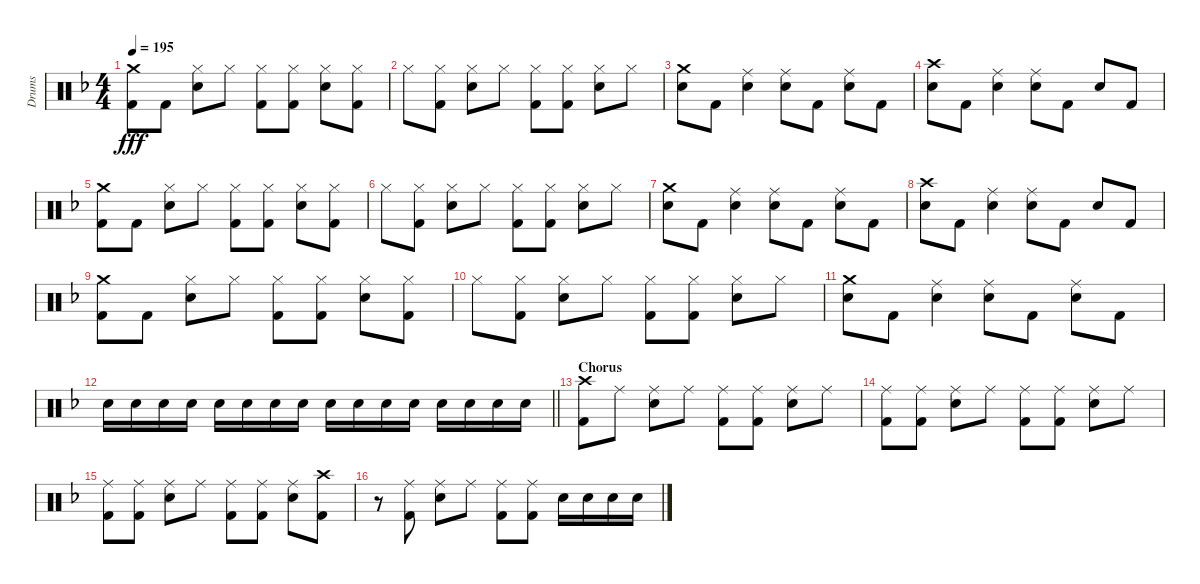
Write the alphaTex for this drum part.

\track ("Drums" "Drums") {instrument percussion}
\staff {score}
\articulation defaults
\ts (4 4)
\tempo 195
\clef neutral
\ks f
("Crash medium (hit)" "Kick (hit) 2").8{dy fff} "Kick (hit) 2".8 ("Hi-Hat (closed)" "Electric Snare (hit)").8 "Hi-Hat (closed)".8 ("Hi-Hat (closed)" "Kick (hit) 2").8 ("Hi-Hat (closed)" "Kick (hit) 2").8 ("Hi-Hat (closed)" "Electric Snare (hit)").8 ("Hi-Hat (closed)" "Kick (hit) 2").8 |
"Hi-Hat (closed)".8 ("Hi-Hat (closed)" "Kick (hit) 2").8 ("Hi-Hat (closed)" "Electric Snare (hit)").8 "Hi-Hat (closed)".8 ("Hi-Hat (closed)" "Kick (hit) 2").8 ("Hi-Hat (closed)" "Kick (hit) 2").8 ("Hi-Hat (closed)" "Electric Snare (hit)").8 "Hi-Hat (closed)".8 |
("Crash medium (hit)" "Electric Snare (hit)").8 "Kick (hit) 2".8 ("Ride (middle)" "Electric Snare (hit)").4 ("Ride (middle)" "Electric Snare (hit)").8 "Kick (hit) 2".8 ("Ride (middle)" "Electric Snare (hit)").8 "Kick (hit) 2".8 |
("Crash high (hit)" "Electric Snare (hit)").8 "Kick (hit) 2".8 ("Ride (middle)" "Electric Snare (hit)").4 ("Ride (middle)" "Electric Snare (hit)").8 "Kick (hit) 2".8 "Electric Snare (hit)".8 "Kick (hit) 2".8 |
("Crash medium (hit)" "Kick (hit) 2").8 "Kick (hit) 2".8 ("Hi-Hat (closed)" "Electric Snare (hit)").8 "Hi-Hat (closed)".8 ("Hi-Hat (closed)" "Kick (hit) 2").8 ("Hi-Hat (closed)" "Kick (hit) 2").8 ("Hi-Hat (closed)" "Electric Snare (hit)").8 ("Hi-Hat (closed)" "Kick (hit) 2").8 |
"Hi-Hat (closed)".8 ("Hi-Hat (closed)" "Kick (hit) 2").8 ("Hi-Hat (closed)" "Electric Snare (hit)").8 "Hi-Hat (closed)".8 ("Hi-Hat (closed)" "Kick (hit) 2").8 ("Hi-Hat (closed)" "Kick (hit) 2").8 ("Hi-Hat (closed)" "Electric Snare (hit)").8 "Hi-Hat (closed)".8 |
("Crash medium (hit)" "Electric Snare (hit)").8 "Kick (hit) 2".8 ("Ride (middle)" "Electric Snare (hit)").4 ("Ride (middle)" "Electric Snare (hit)").8 "Kick (hit) 2".8 ("Ride (middle)" "Electric Snare (hit)").8 "Kick (hit) 2".8 |
("Crash high (hit)" "Electric Snare (hit)").8 "Kick (hit) 2".8 ("Ride (middle)" "Electric Snare (hit)").4 ("Ride (middle)" "Electric Snare (hit)").8 "Kick (hit) 2".8 "Electric Snare (hit)".8 "Kick (hit) 2".8 |
("Crash medium (hit)" "Kick (hit) 2").8 "Kick (hit) 2".8 ("Hi-Hat (closed)" "Electric Snare (hit)").8 "Hi-Hat (closed)".8 ("Hi-Hat (closed)" "Kick (hit) 2").8 ("Hi-Hat (closed)" "Kick (hit) 2").8 ("Hi-Hat (closed)" "Electric Snare (hit)").8 ("Hi-Hat (closed)" "Kick (hit) 2").8 |
"Hi-Hat (closed)".8 ("Hi-Hat (closed)" "Kick (hit) 2").8 ("Hi-Hat (closed)" "Electric Snare (hit)").8 "Hi-Hat (closed)".8 ("Hi-Hat (closed)" "Kick (hit) 2").8 ("Hi-Hat (closed)" "Kick (hit) 2").8 ("Hi-Hat (closed)" "Electric Snare (hit)").8 "Hi-Hat (closed)".8 |
("Crash medium (hit)" "Electric Snare (hit)").8 "Kick (hit) 2".8 ("Ride (middle)" "Electric Snare (hit)").4 ("Ride (middle)" "Electric Snare (hit)").8 "Kick (hit) 2".8 ("Ride (middle)" "Electric Snare (hit)").8 "Kick (hit) 2".8 |
\barLineRight lightlight "Electric Snare (hit)".16 "Electric Snare (hit)".16 "Electric Snare (hit)".16 "Electric Snare (hit)".16 "Electric Snare (hit)".16 "Electric Snare (hit)".16 "Electric Snare (hit)".16 "Electric Snare (hit)".16 "Electric Snare (hit)".16 "Electric Snare (hit)".16 "Electric Snare (hit)".16 "Electric Snare (hit)".16 "Electric Snare (hit)".16 "Electric Snare (hit)".16 "Electric Snare (hit)".16 "Electric Snare (hit)".16
|
\section ("" "Chorus")
("Crash high (hit)" "Kick (hit) 2").8 "Ride (middle)".8 ("Ride (middle)" "Electric Snare (hit)").8 "Ride (middle)".8 ("Ride (middle)" "Kick (hit) 2").8 ("Ride (middle)" "Kick (hit) 2").8 ("Ride (middle)" "Electric Snare (hit)").8 "Ride (middle)".8 |
("Ride (middle)" "Kick (hit) 2").8 ("Ride (middle)" "Kick (hit) 2").8 ("Ride (middle)" "Electric Snare (hit)").8 "Ride (middle)".8 ("Ride (middle)" "Kick (hit) 2").8 ("Ride (middle)" "Kick (hit) 2").8 ("Ride (middle)" "Electric Snare (hit)").8 "Ride (middle)".8 |
("Ride (middle)" "Kick (hit) 2").8 ("Ride (middle)" "Kick (hit) 2").8 ("Ride (middle)" "Electric Snare (hit)").8 "Ride (middle)".8 ("Ride (middle)" "Kick (hit) 2").8 ("Ride (middle)" "Kick (hit) 2").8 ("Ride (middle)" "Electric Snare (hit)").8 ("Crash high (hit)" "Kick (hit) 2").8 |
r.8 ("Ride (middle)" "Kick (hit) 2").8 ("Ride (middle)" "Electric Snare (hit)").8 "Ride (middle)".8 ("Ride (middle)" "Kick (hit) 2").8 ("Ride (middle)" "Kick (hit) 2").8 "Electric Snare (hit)".16 "Electric Snare (hit)".16 "Electric Snare (hit)".16 "Electric Snare (hit)".16
